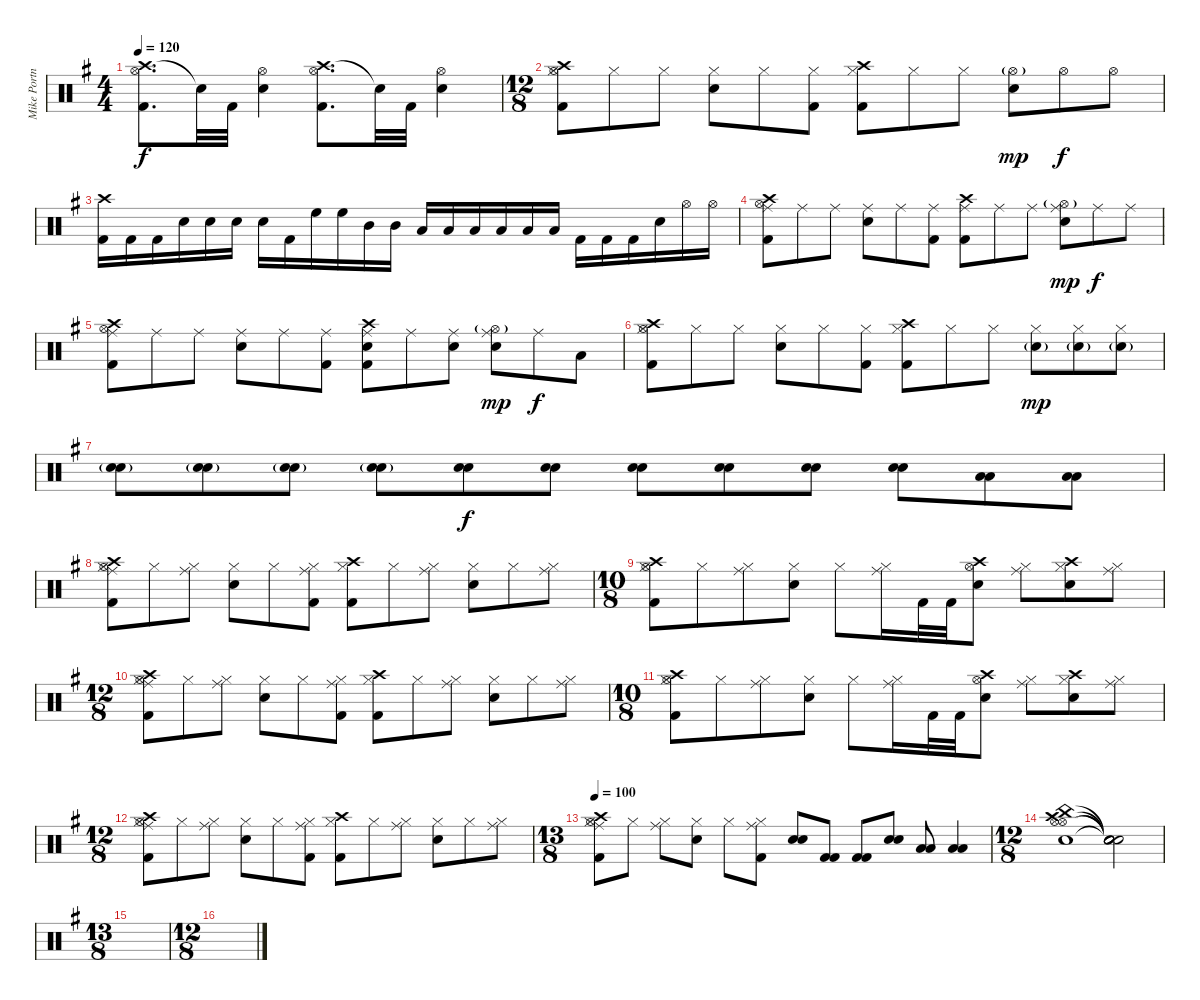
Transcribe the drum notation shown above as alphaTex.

\track ("Mike Portnoy - Drums" "Mike Portn") {instrument percussion}
\staff {score}
\articulation defaults
\ts (4 4)
\tempo 120
\clef neutral
\ks g
("Crash high (hit)" "Hi-Hat (open)" "Kick (hit) 2").8{d dy f} "Snare (hit)"{t}.32 "Kick (hit) 2".32 ("Hi-Hat (open)" "Snare (hit) 2").4 ("Crash high (hit)" "Hi-Hat (open)" "Kick (hit) 2").8{d} "Snare (hit)"{t}.32 "Kick (hit) 2".32 ("Hi-Hat (open)" "Snare (hit) 2").4 |
\ts (12 8)
("Hi-Hat (open)" "Kick (hit) 2" "Crash high (hit)" "Hi-Hat (closed)").8 "Hi-Hat (closed)".8 "Hi-Hat (closed)".8 ("Snare (hit) 2" "Hi-Hat (closed)").8 "Hi-Hat (closed)".8 ("Kick (hit) 2" "Hi-Hat (closed)").8 ("Crash high (hit)" "Kick (hit) 2" "Hi-Hat (closed)").8 "Hi-Hat (closed)".8 "Hi-Hat (closed)".8 ("Snare (hit) 2" "Hi-Hat (open)"{g}).8{dy mp} "Hi-Hat (open)".8{dy f} "Hi-Hat (open)".8 |
("Crash high (hit)" "Kick (hit) 2").16 "Kick (hit) 2".16 "Kick (hit) 2".16 "Snare (hit) 2".16 "Snare (hit) 2".16 "Snare (hit) 2".16 "Snare (hit) 2".16 "Kick (hit) 2".16 "High Floor Tom (hit)".16 "High Floor Tom (hit)".16 "Mid Tom (hit)".16 "Mid Tom (hit)".16 "Low Tom (hit)".16 "Low Tom (hit)".16 "Low Floor Tom (hit)".16 "Low Floor Tom (hit)".16 "Low Floor Tom (hit)".16 "Low Floor Tom (hit)".16 "Kick (hit) 2".16 "Kick (hit) 2".16 "Kick (hit) 2".16 "Snare (hit) 2".16 "Hi-Hat (open)".16 "Hi-Hat (open)".16 |
("Hi-Hat (open)" "Kick (hit) 2" "Crash high (hit)" "Ride (middle)").8 "Ride (middle)".8 "Ride (middle)".8 ("Snare (hit) 2" "Ride (middle)").8 "Ride (middle)".8 ("Kick (hit) 2" "Ride (middle)").8 ("Crash high (hit)" "Kick (hit) 2" "Ride (middle)").8 "Ride (middle)".8 "Ride (middle)".8 ("Snare (hit) 2" "Hi-Hat (open)"{g} "Ride (middle)").8{dy mp} "Ride (middle)".8{dy f} "Ride (middle)".8 |
("Hi-Hat (open)" "Kick (hit) 2" "Crash high (hit)" "Ride (middle)").8 "Ride (middle)".8 "Ride (middle)".8 ("Snare (hit) 2" "Ride (middle)").8 "Ride (middle)".8 ("Kick (hit) 2" "Ride (middle)").8 ("Crash high (hit)" "Kick (hit) 2" "Snare (hit) 2" "Ride (middle)").8 "Ride (middle)".8 ("Snare (hit) 2" "Ride (middle)").8 ("Snare (hit) 2" "Hi-Hat (open)"{g} "Ride (middle)").8{dy mp} "Ride (middle)".8{dy f} "Low Floor Tom (hit)".8 |
("Hi-Hat (open)" "Kick (hit) 2" "Crash high (hit)" "Hi-Hat (closed)").8 "Hi-Hat (closed)".8 "Hi-Hat (closed)".8 ("Snare (hit) 2" "Hi-Hat (closed)").8 "Hi-Hat (closed)".8 ("Kick (hit) 2" "Hi-Hat (closed)").8 ("Crash high (hit)" "Kick (hit) 2" "Hi-Hat (closed)").8 "Hi-Hat (closed)".8 "Hi-Hat (closed)".8 ("Snare (hit) 2"{g} "Hi-Hat (closed)").8{dy mp} ("Snare (hit) 2"{g} "Hi-Hat (closed)").8 ("Snare (hit) 2"{g} "Hi-Hat (closed)").8 |
("Snare (hit) 2"{g} "Snare (hit) 2"{g}).8 ("Snare (hit) 2"{g} "Snare (hit) 2"{g}).8 ("Snare (hit) 2"{g} "Snare (hit) 2"{g}).8 ("Snare (hit) 2"{g} "Snare (hit) 2"{g}).8 ("Snare (hit) 2" "Snare (hit) 2").8{dy f} ("Snare (hit) 2" "Snare (hit) 2").8 ("Snare (hit) 2" "Snare (hit) 2").8 ("Snare (hit) 2" "Snare (hit) 2").8 ("Snare (hit) 2" "Snare (hit) 2").8 ("Snare (hit) 2" "Snare (hit) 2").8 ("Low Tom (hit)" "Low Tom (hit)").8 ("Low Floor Tom (hit)" "Low Floor Tom (hit)").8 |
("Ride (middle)" "Hi-Hat (open)" "Kick (hit) 2" "Crash high (hit)" "Hi-Hat (closed)").8 "Hi-Hat (closed)".8 ("Ride (middle)" "Hi-Hat (closed)").8 ("Snare (hit) 2" "Hi-Hat (closed)").8 "Hi-Hat (closed)".8 ("Ride (middle)" "Kick (hit) 2" "Hi-Hat (closed)").8 ("Crash high (hit)" "Kick (hit) 2" "Hi-Hat (closed)").8 "Hi-Hat (closed)".8 ("Ride (middle)" "Hi-Hat (closed)").8 ("Snare (hit) 2" "Hi-Hat (closed)").8 "Hi-Hat (closed)".8 ("Ride (middle)" "Hi-Hat (closed)").8 |
\ts (10 8)
("Crash high (hit)" "Hi-Hat (open)" "Kick (hit) 2" "Hi-Hat (closed)").8 "Hi-Hat (closed)".8 ("Ride (middle)" "Hi-Hat (closed)").8 ("Snare (hit) 2" "Hi-Hat (closed)").8 "Hi-Hat (closed)".8 ("Ride (middle)" "Hi-Hat (closed)").16 "Kick (hit) 2".32 "Kick (hit) 2".32 ("Hi-Hat (open)" "Crash high (hit)" "Snare (hit) 2").8 ("Ride (middle)" "Hi-Hat (closed)").8 ("Crash high (hit)" "Snare (hit) 2" "Hi-Hat (closed)").8 ("Ride (middle)" "Hi-Hat (closed)").8 |
\ts (12 8)
("Ride (middle)" "Hi-Hat (open)" "Kick (hit) 2" "Crash high (hit)" "Hi-Hat (closed)").8 "Hi-Hat (closed)".8 ("Ride (middle)" "Hi-Hat (closed)").8 ("Snare (hit) 2" "Hi-Hat (closed)").8 "Hi-Hat (closed)".8 ("Ride (middle)" "Kick (hit) 2" "Hi-Hat (closed)").8 ("Crash high (hit)" "Kick (hit) 2" "Hi-Hat (closed)").8 "Hi-Hat (closed)".8 ("Ride (middle)" "Hi-Hat (closed)").8 ("Snare (hit) 2" "Hi-Hat (closed)").8 "Hi-Hat (closed)".8 ("Ride (middle)" "Hi-Hat (closed)").8 |
\ts (10 8)
("Crash high (hit)" "Hi-Hat (open)" "Kick (hit) 2" "Hi-Hat (closed)").8 "Hi-Hat (closed)".8 ("Ride (middle)" "Hi-Hat (closed)").8 ("Snare (hit) 2" "Hi-Hat (closed)").8 "Hi-Hat (closed)".8 ("Ride (middle)" "Hi-Hat (closed)").16 "Kick (hit) 2".32 "Kick (hit) 2".32 ("Hi-Hat (open)" "Crash high (hit)" "Snare (hit) 2").8 ("Ride (middle)" "Hi-Hat (closed)").8 ("Crash high (hit)" "Snare (hit) 2" "Hi-Hat (closed)").8 ("Ride (middle)" "Hi-Hat (closed)").8 |
\ts (12 8)
("Ride (middle)" "Hi-Hat (open)" "Kick (hit) 2" "Crash high (hit)" "Hi-Hat (closed)").8 "Hi-Hat (closed)".8 ("Ride (middle)" "Hi-Hat (closed)").8 ("Snare (hit) 2" "Hi-Hat (closed)").8 "Hi-Hat (closed)".8 ("Ride (middle)" "Kick (hit) 2" "Hi-Hat (closed)").8 ("Crash high (hit)" "Kick (hit) 2" "Hi-Hat (closed)").8 "Hi-Hat (closed)".8 ("Ride (middle)" "Hi-Hat (closed)").8 ("Snare (hit) 2" "Hi-Hat (closed)").8 "Hi-Hat (closed)".8 ("Ride (middle)" "Hi-Hat (closed)").8 |
\ts (13 8)
\tempo 100
("Ride (middle)" "Hi-Hat (open)" "Kick (hit) 2" "Crash high (hit)" "Hi-Hat (closed)").8 "Hi-Hat (closed)".8 ("Ride (middle)" "Hi-Hat (closed)").8 ("Snare (hit) 2" "Hi-Hat (closed)").8 "Hi-Hat (closed)".8 ("Ride (middle)" "Kick (hit) 2" "Hi-Hat (closed)").8 ("Snare (hit) 2" "Snare (hit) 2").8 ("Kick (hit) 2" "Kick (hit) 2").8 ("Kick (hit) 2" "Kick (hit) 2").8 ("Snare (hit) 2" "Snare (hit) 2").8 ("Low Tom (hit)" "Low Tom (hit)").8 ("Low Floor Tom (hit)" "Low Floor Tom (hit)").4 |
\ts (12 8)
("Hi-Hat (open)" "Snare (hit) 2" "China (hit)" "Hi-Hat (open)" "Crash high (hit)").1 ("Snare (hit)"{t} "Snare (hit)"{t} "Snare (hit)"{t} "Snare (hit)"{t} "Snare (hit)"{t}).2 |
\ts (13 8)
|
\ts (12 8)
